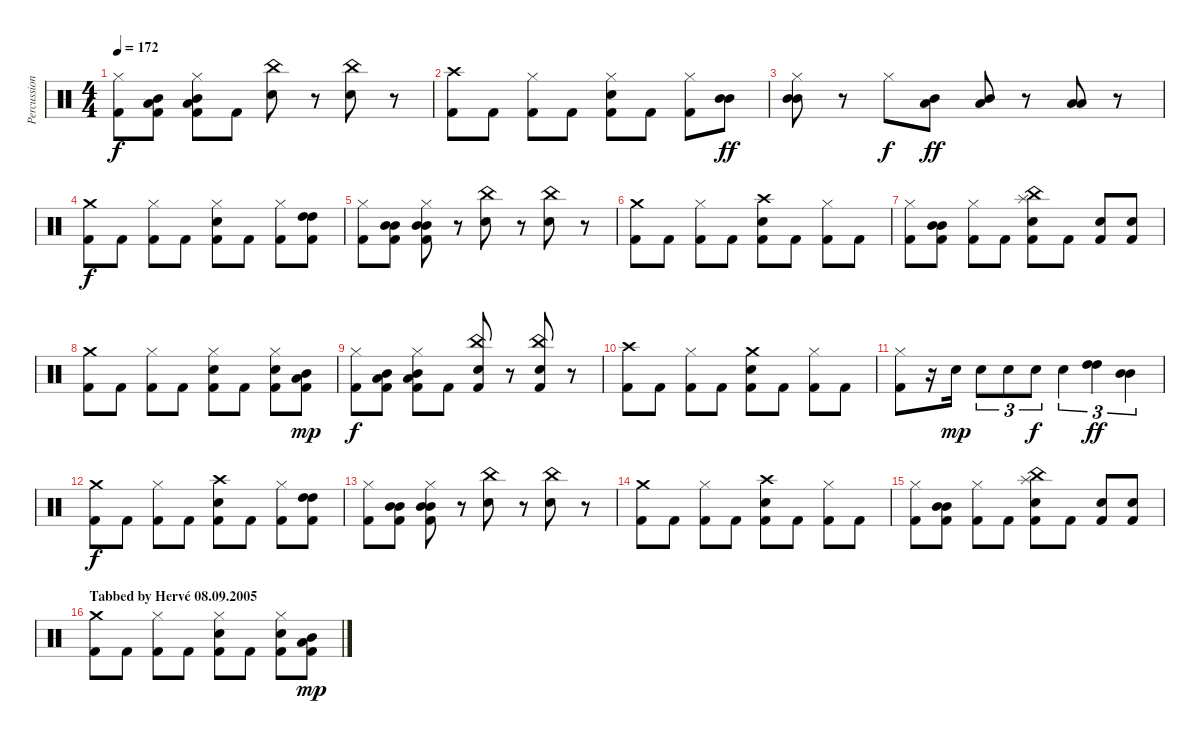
\track ("Percussions" "Percussion") {instrument percussion}
\staff {score}
\articulation defaults
\ts (4 4)
\tempo 172
\clef neutral
\ks c
("Hi-Hat (closed)" "Kick (hit) 2").8{dy f} ("Mid Tom (hit)" "Low Tom (hit)" "Kick (hit) 2").8 ("Hi-Hat (closed)" "Mid Tom (hit)" "Low Tom (hit)" "Kick (hit) 2").8 "Kick (hit) 2".8 ("China (hit)" "Snare (hit) 2").8 r.8 ("China (hit)" "Snare (hit) 2").8 r.8 |
("Crash high (hit)" "Kick (hit) 2").8 "Kick (hit) 2".8 ("Hi-Hat (closed)" "Kick (hit) 2").8 "Kick (hit) 2".8 ("Hi-Hat (closed)" "Snare (hit) 2" "Kick (hit) 2").8 "Kick (hit) 2".8 ("Hi-Hat (closed)" "Kick (hit) 2").8 ("Mid Tom (hit)" "Mid Tom (hit)").8{dy ff} |
("Hi-Hat (closed)" "Mid Tom (hit)" "Mid Tom (hit)").8 r.8 "Hi-Hat (closed)".8{dy f} ("Mid Tom (hit)" "Low Tom (hit)").8{dy ff} ("Mid Tom (hit)" "Low Tom (hit)").8 r.8 ("Low Tom (hit)" "Low Tom (hit)").8 r.8 |
("Crash medium (hit)" "Kick (hit) 2").8{dy f} "Kick (hit) 2".8 ("Hi-Hat (closed)" "Kick (hit) 2").8 "Kick (hit) 2".8 ("Hi-Hat (closed)" "Snare (hit) 2" "Kick (hit) 2").8 "Kick (hit) 2".8 ("Hi-Hat (closed)" "Kick (hit) 2").8 ("High Tom (hit)" "High Tom (hit)" "Kick (hit) 2").8 |
("Hi-Hat (closed)" "Kick (hit) 2").8 ("Mid Tom (hit)" "Mid Tom (hit)" "Kick (hit) 2").8 ("Hi-Hat (closed)" "Mid Tom (hit)" "Mid Tom (hit)" "Kick (hit) 2").8 r.8 ("China (hit)" "Snare (hit) 2").8 r.8 ("China (hit)" "Snare (hit) 2").8 r.8 |
("Crash medium (hit)" "Kick (hit) 2").8 "Kick (hit) 2".8 ("Hi-Hat (closed)" "Kick (hit) 2").8 "Kick (hit) 2".8 ("Crash high (hit)" "Snare (hit) 2" "Kick (hit) 2").8 "Kick (hit) 2".8 ("Hi-Hat (closed)" "Kick (hit) 2").8 "Kick (hit) 2".8 |
("Hi-Hat (closed)" "Kick (hit) 2").8 ("Mid Tom (hit)" "Mid Tom (hit)" "Kick (hit) 2").8 ("Hi-Hat (closed)" "Kick (hit) 2").8 "Kick (hit) 2".8 ("China (hit)" "Splash (hit)" "Snare (hit) 2" "Kick (hit) 2").8 "Kick (hit) 2".8 ("Snare (hit) 2" "Kick (hit) 2").8 ("Snare (hit) 2" "Kick (hit) 2").8 |
("Crash medium (hit)" "Kick (hit) 2").8 "Kick (hit) 2".8 ("Hi-Hat (closed)" "Kick (hit) 2").8 "Kick (hit) 2".8 ("Hi-Hat (closed)" "Snare (hit) 2" "Kick (hit) 2").8 "Kick (hit) 2".8 ("Hi-Hat (closed)" "Snare (hit) 2" "Kick (hit) 2").8 ("Mid Tom (hit)" "Low Tom (hit)" "Kick (hit) 2").8{dy mp} |
("Hi-Hat (closed)" "Kick (hit) 2").8{dy f} ("Mid Tom (hit)" "Low Tom (hit)" "Kick (hit) 2").8 ("Hi-Hat (closed)" "Mid Tom (hit)" "Low Tom (hit)" "Kick (hit) 2").8 "Kick (hit) 2".8 ("China (hit)" "Snare (hit) 2" "Kick (hit) 2").8 r.8 ("China (hit)" "Snare (hit) 2" "Kick (hit) 2").8 r.8 |
("Crash high (hit)" "Kick (hit) 2").8 "Kick (hit) 2".8 ("Hi-Hat (closed)" "Kick (hit) 2").8 "Kick (hit) 2".8 ("Crash medium (hit)" "Snare (hit) 2" "Kick (hit) 2").8 "Kick (hit) 2".8 ("Hi-Hat (closed)" "Kick (hit) 2").8 "Kick (hit) 2".8 |
("Hi-Hat (closed)" "Kick (hit) 2").8 r.16 "Snare (hit) 2".16{dy mp} "Snare (hit) 2".8{tu (3 2)} "Snare (hit) 2".8{tu (3 2)} "Snare (hit) 2".8{tu (3 2) dy f} "Snare (hit) 2".4{tu (3 2)} ("High Tom (hit)" "High Tom (hit)").4{tu (3 2) dy ff} ("Mid Tom (hit)" "Mid Tom (hit)").4{tu (3 2)} |
("Crash medium (hit)" "Kick (hit) 2").8{dy f} "Kick (hit) 2".8 ("Hi-Hat (closed)" "Kick (hit) 2").8 "Kick (hit) 2".8 ("Crash high (hit)" "Snare (hit) 2" "Kick (hit) 2").8 "Kick (hit) 2".8 ("Hi-Hat (closed)" "Kick (hit) 2").8 ("High Tom (hit)" "High Tom (hit)" "Kick (hit) 2").8 |
("Hi-Hat (closed)" "Kick (hit) 2").8{volume 12} ("Mid Tom (hit)" "Mid Tom (hit)" "Kick (hit) 2").8 ("Hi-Hat (closed)" "Mid Tom (hit)" "Mid Tom (hit)" "Kick (hit) 2").8 r.8 ("China (hit)" "Snare (hit) 2").8 r.8 ("China (hit)" "Snare (hit) 2").8 r.8 |
("Crash medium (hit)" "Kick (hit) 2").8{volume 10} "Kick (hit) 2".8 ("Hi-Hat (closed)" "Kick (hit) 2").8 "Kick (hit) 2".8 ("Crash high (hit)" "Snare (hit) 2" "Kick (hit) 2").8 "Kick (hit) 2".8 ("Hi-Hat (closed)" "Kick (hit) 2").8 "Kick (hit) 2".8 |
("Hi-Hat (closed)" "Kick (hit) 2").8{volume 8} ("Mid Tom (hit)" "Mid Tom (hit)" "Kick (hit) 2").8 ("Hi-Hat (closed)" "Kick (hit) 2").8 "Kick (hit) 2".8 ("China (hit)" "Splash (hit)" "Snare (hit) 2" "Kick (hit) 2").8 "Kick (hit) 2".8 ("Snare (hit) 2" "Kick (hit) 2").8 ("Snare (hit) 2" "Kick (hit) 2").8 |
\section ("" "Tabbed by Hervé 08.09.2005")
("Crash medium (hit)" "Kick (hit) 2").8{volume 7} "Kick (hit) 2".8 ("Hi-Hat (closed)" "Kick (hit) 2").8 "Kick (hit) 2".8 ("Hi-Hat (closed)" "Snare (hit) 2" "Kick (hit) 2").8 "Kick (hit) 2".8 ("Hi-Hat (closed)" "Snare (hit) 2" "Kick (hit) 2").8 ("Mid Tom (hit)" "Low Tom (hit)" "Kick (hit) 2").8{dy mp}
